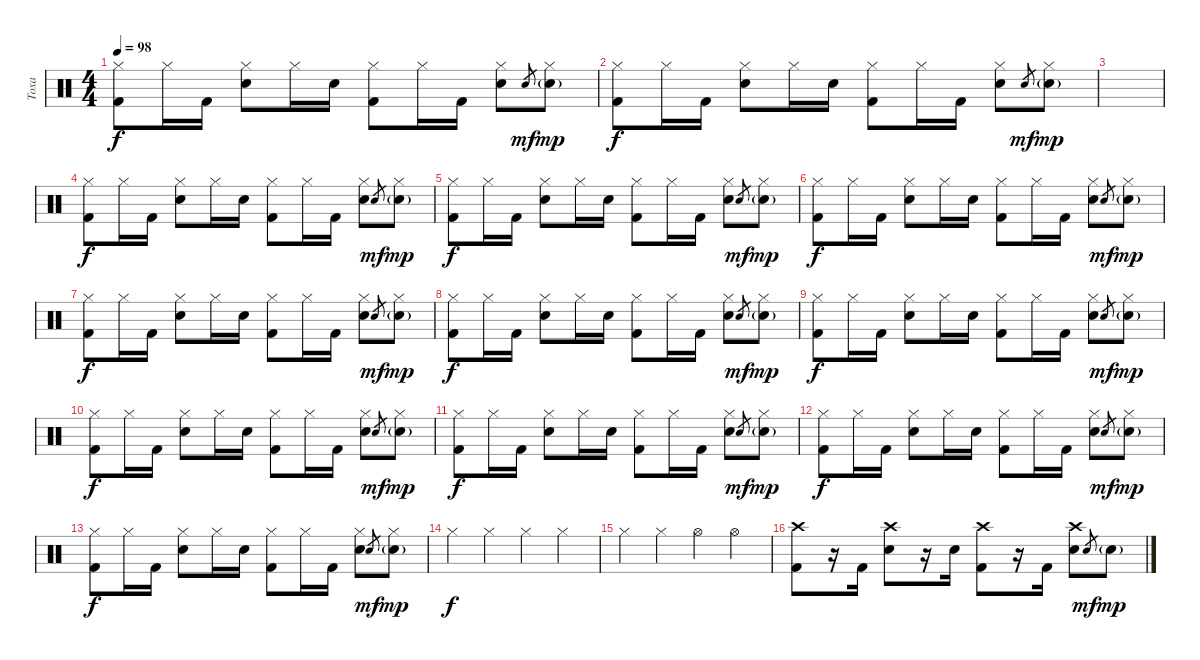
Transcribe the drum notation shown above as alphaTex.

\track ("Toxa" "Toxa") {instrument percussion}
\staff {score}
\articulation defaults
\ts (4 4)
\tempo 98
\clef neutral
\ks c
("Hi-Hat (closed)" "Kick (hit) 2").8{dy f} "Hi-Hat (closed)".16 "Kick (hit) 2".16 ("Hi-Hat (closed)" "Electric Snare (hit)").8 "Hi-Hat (closed)".16 "Electric Snare (hit)".16 ("Hi-Hat (closed)" "Kick (hit) 2").8 "Hi-Hat (closed)".16 "Kick (hit) 2".16 ("Hi-Hat (closed)" "Electric Snare (hit)").8 "Electric Snare (hit)".8{gr dy mf} ("Hi-Hat (closed)" "Electric Snare (hit)"{g}).8{dy mp} |
("Hi-Hat (closed)" "Kick (hit) 2").8{dy f} "Hi-Hat (closed)".16 "Kick (hit) 2".16 ("Hi-Hat (closed)" "Electric Snare (hit)").8 "Hi-Hat (closed)".16 "Electric Snare (hit)".16 ("Hi-Hat (closed)" "Kick (hit) 2").8 "Hi-Hat (closed)".16 "Kick (hit) 2".16 ("Hi-Hat (closed)" "Electric Snare (hit)").8 "Electric Snare (hit)".8{gr dy mf} ("Hi-Hat (closed)" "Electric Snare (hit)"{g}).8{dy mp} |
|
("Hi-Hat (closed)" "Kick (hit) 2").8{dy f} "Hi-Hat (closed)".16 "Kick (hit) 2".16 ("Hi-Hat (closed)" "Electric Snare (hit)").8 "Hi-Hat (closed)".16 "Electric Snare (hit)".16 ("Hi-Hat (closed)" "Kick (hit) 2").8 "Hi-Hat (closed)".16 "Kick (hit) 2".16 ("Hi-Hat (closed)" "Electric Snare (hit)").8 "Electric Snare (hit)".8{gr dy mf} ("Hi-Hat (closed)" "Electric Snare (hit)"{g}).8{dy mp} |
("Hi-Hat (closed)" "Kick (hit) 2").8{dy f} "Hi-Hat (closed)".16 "Kick (hit) 2".16 ("Hi-Hat (closed)" "Electric Snare (hit)").8 "Hi-Hat (closed)".16 "Electric Snare (hit)".16 ("Hi-Hat (closed)" "Kick (hit) 2").8 "Hi-Hat (closed)".16 "Kick (hit) 2".16 ("Hi-Hat (closed)" "Electric Snare (hit)").8 "Electric Snare (hit)".8{gr dy mf} ("Hi-Hat (closed)" "Electric Snare (hit)"{g}).8{dy mp} |
("Hi-Hat (closed)" "Kick (hit) 2").8{dy f} "Hi-Hat (closed)".16 "Kick (hit) 2".16 ("Hi-Hat (closed)" "Electric Snare (hit)").8 "Hi-Hat (closed)".16 "Electric Snare (hit)".16 ("Hi-Hat (closed)" "Kick (hit) 2").8 "Hi-Hat (closed)".16 "Kick (hit) 2".16 ("Hi-Hat (closed)" "Electric Snare (hit)").8 "Electric Snare (hit)".8{gr dy mf} ("Hi-Hat (closed)" "Electric Snare (hit)"{g}).8{dy mp} |
("Hi-Hat (closed)" "Kick (hit) 2").8{dy f} "Hi-Hat (closed)".16 "Kick (hit) 2".16 ("Hi-Hat (closed)" "Electric Snare (hit)").8 "Hi-Hat (closed)".16 "Electric Snare (hit)".16 ("Hi-Hat (closed)" "Kick (hit) 2").8 "Hi-Hat (closed)".16 "Kick (hit) 2".16 ("Hi-Hat (closed)" "Electric Snare (hit)").8 "Electric Snare (hit)".8{gr dy mf} ("Hi-Hat (closed)" "Electric Snare (hit)"{g}).8{dy mp} |
("Hi-Hat (closed)" "Kick (hit) 2").8{dy f} "Hi-Hat (closed)".16 "Kick (hit) 2".16 ("Hi-Hat (closed)" "Electric Snare (hit)").8 "Hi-Hat (closed)".16 "Electric Snare (hit)".16 ("Hi-Hat (closed)" "Kick (hit) 2").8 "Hi-Hat (closed)".16 "Kick (hit) 2".16 ("Hi-Hat (closed)" "Electric Snare (hit)").8 "Electric Snare (hit)".8{gr dy mf} ("Hi-Hat (closed)" "Electric Snare (hit)"{g}).8{dy mp} |
("Hi-Hat (closed)" "Kick (hit) 2").8{dy f} "Hi-Hat (closed)".16 "Kick (hit) 2".16 ("Hi-Hat (closed)" "Electric Snare (hit)").8 "Hi-Hat (closed)".16 "Electric Snare (hit)".16 ("Hi-Hat (closed)" "Kick (hit) 2").8 "Hi-Hat (closed)".16 "Kick (hit) 2".16 ("Hi-Hat (closed)" "Electric Snare (hit)").8 "Electric Snare (hit)".8{gr dy mf} ("Hi-Hat (closed)" "Electric Snare (hit)"{g}).8{dy mp} |
("Hi-Hat (closed)" "Kick (hit) 2").8{dy f} "Hi-Hat (closed)".16 "Kick (hit) 2".16 ("Hi-Hat (closed)" "Electric Snare (hit)").8 "Hi-Hat (closed)".16 "Electric Snare (hit)".16 ("Hi-Hat (closed)" "Kick (hit) 2").8 "Hi-Hat (closed)".16 "Kick (hit) 2".16 ("Hi-Hat (closed)" "Electric Snare (hit)").8 "Electric Snare (hit)".8{gr dy mf} ("Hi-Hat (closed)" "Electric Snare (hit)"{g}).8{dy mp} |
("Hi-Hat (closed)" "Kick (hit) 2").8{dy f} "Hi-Hat (closed)".16 "Kick (hit) 2".16 ("Hi-Hat (closed)" "Electric Snare (hit)").8 "Hi-Hat (closed)".16 "Electric Snare (hit)".16 ("Hi-Hat (closed)" "Kick (hit) 2").8 "Hi-Hat (closed)".16 "Kick (hit) 2".16 ("Hi-Hat (closed)" "Electric Snare (hit)").8 "Electric Snare (hit)".8{gr dy mf} ("Hi-Hat (closed)" "Electric Snare (hit)"{g}).8{dy mp} |
("Hi-Hat (closed)" "Kick (hit) 2").8{dy f} "Hi-Hat (closed)".16 "Kick (hit) 2".16 ("Hi-Hat (closed)" "Electric Snare (hit)").8 "Hi-Hat (closed)".16 "Electric Snare (hit)".16 ("Hi-Hat (closed)" "Kick (hit) 2").8 "Hi-Hat (closed)".16 "Kick (hit) 2".16 ("Hi-Hat (closed)" "Electric Snare (hit)").8 "Electric Snare (hit)".8{gr dy mf} ("Hi-Hat (closed)" "Electric Snare (hit)"{g}).8{dy mp} |
("Hi-Hat (closed)" "Kick (hit) 2").8{dy f} "Hi-Hat (closed)".16 "Kick (hit) 2".16 ("Hi-Hat (closed)" "Electric Snare (hit)").8 "Hi-Hat (closed)".16 "Electric Snare (hit)".16 ("Hi-Hat (closed)" "Kick (hit) 2").8 "Hi-Hat (closed)".16 "Kick (hit) 2".16 ("Hi-Hat (closed)" "Electric Snare (hit)").8 "Electric Snare (hit)".8{gr dy mf} ("Hi-Hat (closed)" "Electric Snare (hit)"{g}).8{dy mp} |
"Hi-Hat (closed)".4{dy f} "Hi-Hat (closed)".4 "Hi-Hat (closed)".4 "Hi-Hat (closed)".4 |
"Hi-Hat (closed)".4 "Hi-Hat (closed)".4 "Hi-Hat (open)".4 "Hi-Hat (open)".4 |
("Crash high (hit)" "Kick (hit) 2").8 r.16 "Kick (hit) 2".16 ("Crash high (hit)" "Electric Snare (hit)").8 r.16 "Electric Snare (hit)".16 ("Crash high (hit)" "Kick (hit) 2").8 r.16 "Kick (hit) 2".16 ("Crash high (hit)" "Electric Snare (hit)").8 "Electric Snare (hit)".8{gr dy mf} "Electric Snare (hit)"{g}.8{dy mp}
